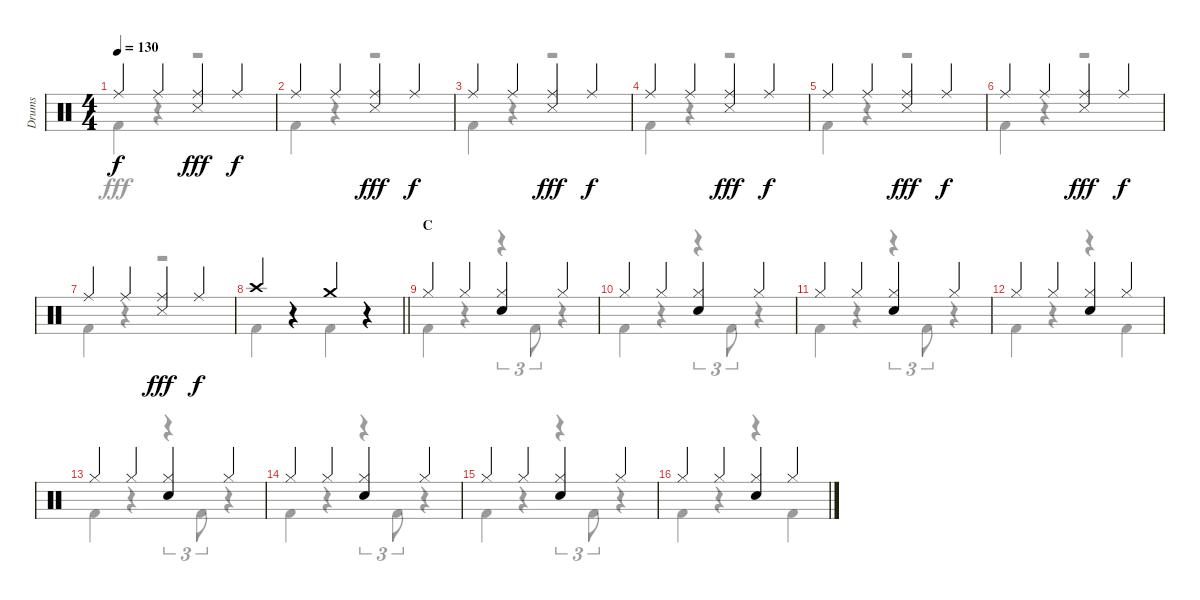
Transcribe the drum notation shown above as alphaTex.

\track ("Drums" "Drums") {instrument percussion}
\staff {score}
\articulation defaults
\voice
\ts (4 4)
\tempo 130
\clef neutral
\ks c "Ride (middle)".4{dy f} "Ride (middle)".4
("Ride (middle)" "Snare (side stick) 3").4{dy fff} "Ride (middle)".4{dy f} |
"Ride (middle)".4 "Ride (middle)".4 ("Ride (middle)" "Snare (side stick) 3").4{dy fff} "Ride (middle)".4{dy f} |
"Ride (middle)".4 "Ride (middle)".4 ("Ride (middle)" "Snare (side stick) 3").4{dy fff} "Ride (middle)".4{dy f} |
"Ride (middle)".4 "Ride (middle)".4 ("Ride (middle)" "Snare (side stick) 3").4{dy fff} "Ride (middle)".4{dy f} |
"Ride (middle)".4 "Ride (middle)".4 ("Ride (middle)" "Snare (side stick) 3").4{dy fff} "Ride (middle)".4{dy f} |
"Ride (middle)".4 "Ride (middle)".4 ("Ride (middle)" "Snare (side stick) 3").4{dy fff} "Ride (middle)".4{dy f} |
"Ride (middle)".4 "Ride (middle)".4 ("Ride (middle)" "Snare (side stick) 3").4{dy fff} "Ride (middle)".4{dy f} |
\barLineRight lightlight "Crash high (hit)".4
r.4 "Crash medium (hit)".4 r.4 |
\section ("" "C")
"Hi-Hat (closed)".4 "Hi-Hat (closed)".4 ("Hi-Hat (closed)" "Snare (hit) 2").4 "Hi-Hat (closed)".4 |
"Hi-Hat (closed)".4 "Hi-Hat (closed)".4 ("Hi-Hat (closed)" "Snare (hit) 2").4 "Hi-Hat (closed)".4 |
"Hi-Hat (closed)".4 "Hi-Hat (closed)".4 ("Hi-Hat (closed)" "Snare (hit) 2").4 "Hi-Hat (closed)".4 |
"Hi-Hat (closed)".4 "Hi-Hat (closed)".4 ("Hi-Hat (closed)" "Snare (hit) 2").4 "Hi-Hat (closed)".4 |
"Hi-Hat (closed)".4 "Hi-Hat (closed)".4 ("Hi-Hat (closed)" "Snare (hit) 2").4 "Hi-Hat (closed)".4 |
"Hi-Hat (closed)".4 "Hi-Hat (closed)".4 ("Hi-Hat (closed)" "Snare (hit) 2").4 "Hi-Hat (closed)".4 |
"Hi-Hat (closed)".4 "Hi-Hat (closed)".4 ("Hi-Hat (closed)" "Snare (hit) 2").4 "Hi-Hat (closed)".4 |
"Hi-Hat (closed)".4 "Hi-Hat (closed)".4 ("Hi-Hat (closed)" "Snare (hit) 2").4 "Hi-Hat (closed)".4
\voice
\clef neutral
\ottava regular
\simile none
\ks c "Kick (hit) 2".4{dy fff}
r.4 r.2 |
"Kick (hit) 2".4 r.4 r.2 |
"Kick (hit) 2".4 r.4 r.2 |
"Kick (hit) 2".4 r.4 r.2 |
"Kick (hit) 2".4 r.4 r.2 |
"Kick (hit) 2".4 r.4 r.2 |
"Kick (hit) 2".4 r.4 r.2 |
\barLineRight lightlight "Kick (hit) 2".4
r.4 "Kick (hit) 2".4 r.4 |
"Kick (hit) 2".4 r.4 r.4{tu (3 2)} "Kick (hit) 2".8{tu (3 2)} r.4 |
"Kick (hit) 2".4 r.4 r.4{tu (3 2)} "Kick (hit) 2".8{tu (3 2)} r.4 |
"Kick (hit) 2".4 r.4 r.4{tu (3 2)} "Kick (hit) 2".8{tu (3 2)} r.4 |
"Kick (hit) 2".4 r.4 r.4 "Kick (hit) 2".4 |
"Kick (hit) 2".4 r.4 r.4{tu (3 2)} "Kick (hit) 2".8{tu (3 2)} r.4 |
"Kick (hit) 2".4 r.4 r.4{tu (3 2)} "Kick (hit) 2".8{tu (3 2)} r.4 |
"Kick (hit) 2".4 r.4 r.4{tu (3 2)} "Kick (hit) 2".8{tu (3 2)} r.4 |
"Kick (hit) 2".4 r.4 r.4 "Kick (hit) 2".4
